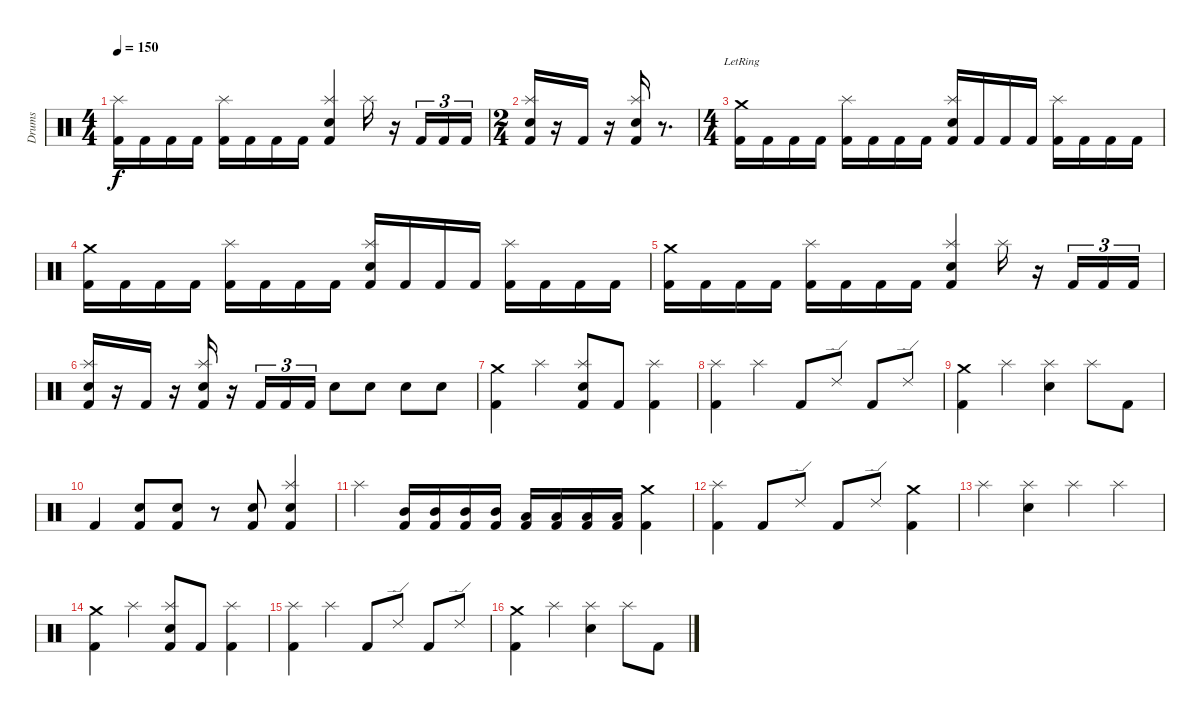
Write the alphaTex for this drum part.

\track ("Drums" "Drums") {instrument percussion}
\staff {score}
\articulation defaults
\ts (4 4)
\tempo 150
\clef neutral
\ks c
("Kick (hit) 2" "Splash (hit)").16{dy f} "Kick (hit) 2".16 "Kick (hit) 2".16 "Kick (hit) 2".16 ("Kick (hit) 2" "Splash (hit)").16 "Kick (hit) 2".16 "Kick (hit) 2".16 "Kick (hit) 2".16 ("Kick (hit) 2" "Splash (hit)" "Snare (hit) 2").4 "Splash (hit)".16 r.16 "Kick (hit) 2".16{tu (3 2)} "Kick (hit) 2".16{tu (3 2)} "Kick (hit) 2".16{tu (3 2)} |
\ts (2 4)
("Kick (hit) 2" "Splash (hit)" "Snare (hit) 2").16 r.16 "Kick (hit) 2".16 r.16 ("Kick (hit) 2" "Splash (hit)" "Snare (hit) 2").16 r.8{d} |
\ts (4 4)
("Kick (hit) 2" "Crash medium (hit)"{lr}).16 "Kick (hit) 2".16 "Kick (hit) 2".16 "Kick (hit) 2".16 ("Kick (hit) 2" "Splash (hit)").16 "Kick (hit) 2".16 "Kick (hit) 2".16 "Kick (hit) 2".16 ("Kick (hit) 2" "Splash (hit)" "Snare (hit) 2").16 "Kick (hit) 2".16 "Kick (hit) 2".16 "Kick (hit) 2".16 ("Kick (hit) 2" "Splash (hit)").16 "Kick (hit) 2".16 "Kick (hit) 2".16 "Kick (hit) 2".16 |
("Kick (hit) 2" "Crash medium (hit)").16 "Kick (hit) 2".16 "Kick (hit) 2".16 "Kick (hit) 2".16 ("Kick (hit) 2" "Splash (hit)").16 "Kick (hit) 2".16 "Kick (hit) 2".16 "Kick (hit) 2".16 ("Kick (hit) 2" "Splash (hit)" "Snare (hit) 2").16 "Kick (hit) 2".16 "Kick (hit) 2".16 "Kick (hit) 2".16 ("Kick (hit) 2" "Splash (hit)").16 "Kick (hit) 2".16 "Kick (hit) 2".16 "Kick (hit) 2".16 |
("Kick (hit) 2" "Crash medium (hit)").16 "Kick (hit) 2".16 "Kick (hit) 2".16 "Kick (hit) 2".16 ("Kick (hit) 2" "Splash (hit)").16 "Kick (hit) 2".16 "Kick (hit) 2".16 "Kick (hit) 2".16 ("Kick (hit) 2" "Splash (hit)" "Snare (hit) 2").4 "Splash (hit)".16 r.16 "Kick (hit) 2".16{tu (3 2)} "Kick (hit) 2".16{tu (3 2)} "Kick (hit) 2".16{tu (3 2)} |
("Kick (hit) 2" "Splash (hit)" "Snare (hit) 2").16 r.16 "Kick (hit) 2".16 r.16 ("Kick (hit) 2" "Splash (hit)" "Snare (hit) 2").16 r.16 "Kick (hit) 2".16{tu (3 2)} "Kick (hit) 2".16{tu (3 2)} "Kick (hit) 2".16{tu (3 2)} "Electric Snare (hit)".8 "Electric Snare (hit)".8 "Electric Snare (hit)".8 "Electric Snare (hit)".8 |
("Kick (hit) 2" "Crash medium (hit)").4 "Splash (hit)".4 ("Kick (hit) 2" "Splash (hit)" "Snare (hit) 2").8 "Kick (hit) 2".8 ("Kick (hit) 2" "Splash (hit)").4 |
("Kick (hit) 2" "Splash (hit)").4 "Splash (hit)".4 "Kick (hit) 2".8 "Ride (edge) 2".8 "Kick (hit) 2".8 "Ride (edge) 2".8 |
("Kick (hit) 2" "Crash medium (hit)").4 "Splash (hit)".4 ("Splash (hit)" "Snare (hit) 2").4 "Splash (hit)".8 "Kick (hit) 2".8 |
"Kick (hit) 2".4 ("Kick (hit) 2" "Snare (hit) 2").8 ("Kick (hit) 2" "Snare (hit) 2").8 r.8 ("Kick (hit) 2" "Snare (hit) 2").8 ("Kick (hit) 2" "Snare (hit) 2" "Splash (hit)").4 |
"Splash (hit)".4 ("Kick (hit) 2" "Mid Tom (hit)").16 ("Kick (hit) 2" "Mid Tom (hit)").16 ("Kick (hit) 2" "Mid Tom (hit)").16 ("Kick (hit) 2" "Mid Tom (hit)").16 ("Kick (hit) 2" "Low Tom (hit)").16 ("Kick (hit) 2" "Low Tom (hit)").16 ("Kick (hit) 2" "Low Tom (hit)").16 ("Kick (hit) 2" "Low Tom (hit)").16 ("Kick (hit) 2" "Crash medium (hit)").4 |
("Kick (hit) 2" "Splash (hit)").4 "Kick (hit) 2".8 "Ride (edge) 2".8 "Kick (hit) 2".8 "Ride (edge) 2".8 ("Kick (hit) 2" "Crash medium (hit)").4 |
"Splash (hit)".4 ("Snare (hit) 2" "Splash (hit)").4 "Splash (hit)".4 "Splash (hit)".4 |
("Kick (hit) 2" "Crash medium (hit)").4 "Splash (hit)".4 ("Kick (hit) 2" "Splash (hit)" "Snare (hit) 2").8 "Kick (hit) 2".8 ("Kick (hit) 2" "Splash (hit)").4 |
("Kick (hit) 2" "Splash (hit)").4 "Splash (hit)".4 "Kick (hit) 2".8 "Ride (edge) 2".8 "Kick (hit) 2".8 "Ride (edge) 2".8 |
("Kick (hit) 2" "Crash medium (hit)").4 "Splash (hit)".4 ("Splash (hit)" "Snare (hit) 2").4 "Splash (hit)".8 "Kick (hit) 2".8
